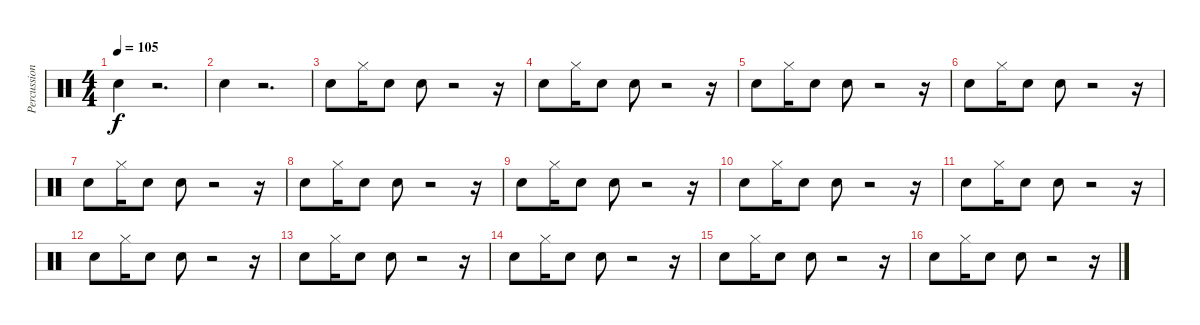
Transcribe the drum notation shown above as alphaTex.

\track ("Percussions" "Percussion") {instrument percussion}
\staff {score}
\articulation defaults
\ts (4 4)
\tempo 105
\clef neutral
\ks c "Snare (hit) 2".4{dy f}
r.2{d} |
"Snare (hit) 2".4 r.2{d} |
"Snare (hit) 2".8 "Hi-Hat (closed)".16 "Snare (hit) 2".8 "Snare (hit) 2".8 r.2 r.16 |
"Snare (hit) 2".8 "Hi-Hat (closed)".16 "Snare (hit) 2".8 "Snare (hit) 2".8 r.2 r.16 |
"Snare (hit) 2".8 "Hi-Hat (closed)".16 "Snare (hit) 2".8 "Snare (hit) 2".8 r.2 r.16 |
"Snare (hit) 2".8 "Hi-Hat (closed)".16 "Snare (hit) 2".8 "Snare (hit) 2".8 r.2 r.16 |
"Snare (hit) 2".8 "Hi-Hat (closed)".16 "Snare (hit) 2".8 "Snare (hit) 2".8 r.2 r.16 |
"Snare (hit) 2".8 "Hi-Hat (closed)".16 "Snare (hit) 2".8 "Snare (hit) 2".8 r.2 r.16 |
"Snare (hit) 2".8 "Hi-Hat (closed)".16 "Snare (hit) 2".8 "Snare (hit) 2".8 r.2 r.16 |
"Snare (hit) 2".8 "Hi-Hat (closed)".16 "Snare (hit) 2".8 "Snare (hit) 2".8 r.2 r.16 |
"Snare (hit) 2".8 "Hi-Hat (closed)".16 "Snare (hit) 2".8 "Snare (hit) 2".8 r.2 r.16 |
"Snare (hit) 2".8 "Hi-Hat (closed)".16 "Snare (hit) 2".8 "Snare (hit) 2".8 r.2 r.16 |
"Snare (hit) 2".8 "Hi-Hat (closed)".16 "Snare (hit) 2".8 "Snare (hit) 2".8 r.2 r.16 |
"Snare (hit) 2".8 "Hi-Hat (closed)".16 "Snare (hit) 2".8 "Snare (hit) 2".8 r.2 r.16 |
"Snare (hit) 2".8 "Hi-Hat (closed)".16 "Snare (hit) 2".8 "Snare (hit) 2".8 r.2 r.16 |
"Snare (hit) 2".8 "Hi-Hat (closed)".16 "Snare (hit) 2".8 "Snare (hit) 2".8 r.2 r.16
